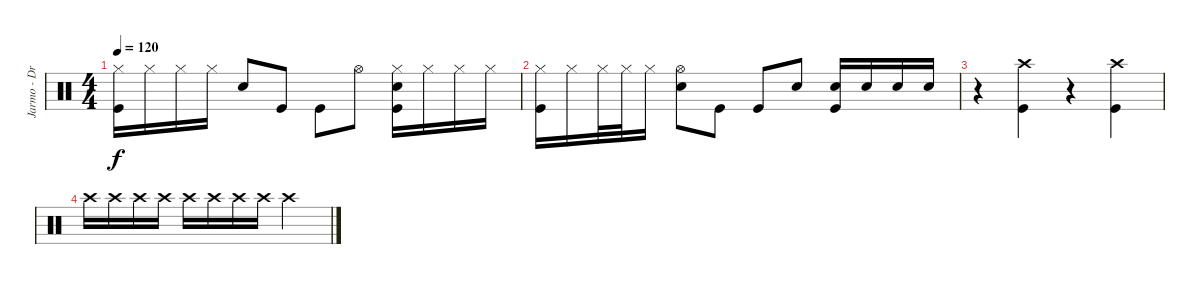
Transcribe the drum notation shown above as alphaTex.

\track ("Jarmo - Drums" "Jarmo - Dr") {instrument percussion}
\staff {score}
\articulation defaults
\ts (4 4)
\tempo 120
\clef neutral
\ks c
("Kick (hit)" "Hi-Hat (closed)").16{dy f} "Hi-Hat (closed)".16 "Hi-Hat (closed)".16 "Hi-Hat (closed)".16 "Electric Snare (hit)".8 "Kick (hit)".8 "Kick (hit)".8 "Hi-Hat (open)".8 ("Kick (hit)" "Hi-Hat (closed)" "Electric Snare (hit)").16 "Hi-Hat (closed)".16 "Hi-Hat (closed)".16 "Hi-Hat (closed)".16 |
("Kick (hit)" "Hi-Hat (closed)").16 "Hi-Hat (closed)".16 "Hi-Hat (closed)".32 "Hi-Hat (closed)".32 "Hi-Hat (closed)".16 ("Electric Snare (hit)" "Hi-Hat (open)").8 "Kick (hit)".8 "Kick (hit)".8 "Electric Snare (hit)".8 ("Kick (hit)" "Electric Snare (hit)").16 "Electric Snare (hit)".16 "Electric Snare (hit)".16 "Electric Snare (hit)".16 |
r.4 ("Crash high (hit)" "Kick (hit)").4 r.4 ("Crash high (hit)" "Kick (hit)").4 |
"Crash high (hit)".16 "Crash high (hit)".16 "Crash high (hit)".16 "Crash high (hit)".16 "Crash high (hit)".16 "Crash high (hit)".16 "Crash high (hit)".16 "Crash high (hit)".16 "Crash high (hit)".2
